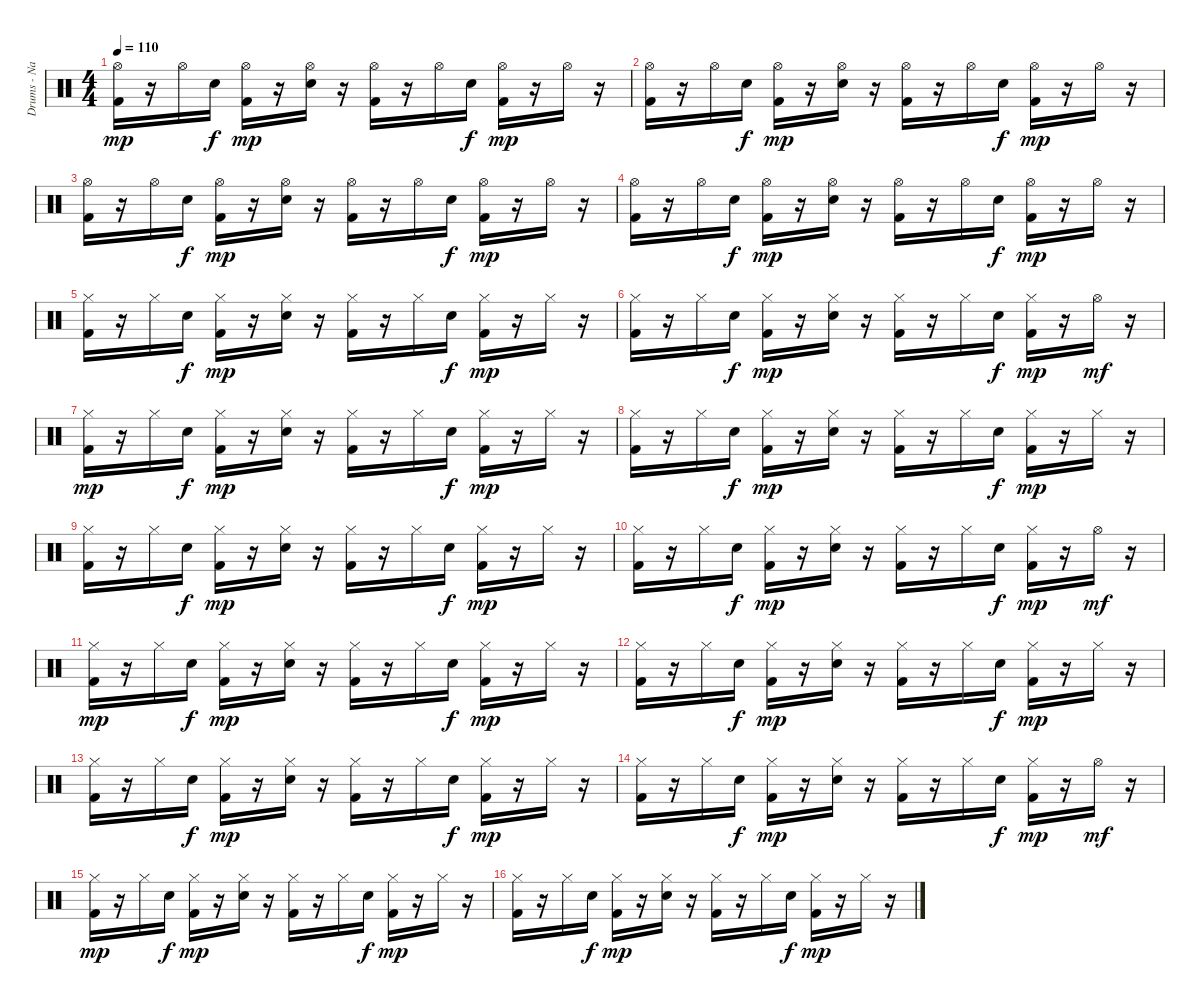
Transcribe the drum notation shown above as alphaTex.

\track ("Drums - Nathan" "Drums - Na") {instrument percussion}
\staff {score}
\articulation defaults
\ts (4 4)
\tempo 110
\clef neutral
\ks c
("Hi-Hat (open)" "Kick (hit) 2").16{dy mp} r.16 "Hi-Hat (open)".16 "Electric Snare (hit)".16{dy f} ("Hi-Hat (open)" "Kick (hit) 2").16{dy mp} r.16 ("Hi-Hat (open)" "Electric Snare (hit)").16 r.16 ("Hi-Hat (open)" "Kick (hit) 2").16 r.16 "Hi-Hat (open)".16 "Electric Snare (hit)".16{dy f} ("Hi-Hat (open)" "Kick (hit) 2").16{dy mp} r.16 "Hi-Hat (open)".16 r.16 |
("Hi-Hat (open)" "Kick (hit) 2").16 r.16 "Hi-Hat (open)".16 "Electric Snare (hit)".16{dy f} ("Hi-Hat (open)" "Kick (hit) 2").16{dy mp} r.16 ("Hi-Hat (open)" "Electric Snare (hit)").16 r.16 ("Hi-Hat (open)" "Kick (hit) 2").16 r.16 "Hi-Hat (open)".16 "Electric Snare (hit)".16{dy f} ("Hi-Hat (open)" "Kick (hit) 2").16{dy mp} r.16 "Hi-Hat (open)".16 r.16 |
("Hi-Hat (open)" "Kick (hit) 2").16 r.16 "Hi-Hat (open)".16 "Electric Snare (hit)".16{dy f} ("Hi-Hat (open)" "Kick (hit) 2").16{dy mp} r.16 ("Hi-Hat (open)" "Electric Snare (hit)").16 r.16 ("Hi-Hat (open)" "Kick (hit) 2").16 r.16 "Hi-Hat (open)".16 "Electric Snare (hit)".16{dy f} ("Hi-Hat (open)" "Kick (hit) 2").16{dy mp} r.16 "Hi-Hat (open)".16 r.16 |
("Hi-Hat (open)" "Kick (hit) 2").16 r.16 "Hi-Hat (open)".16 "Electric Snare (hit)".16{dy f} ("Hi-Hat (open)" "Kick (hit) 2").16{dy mp} r.16 ("Hi-Hat (open)" "Electric Snare (hit)").16 r.16 ("Hi-Hat (open)" "Kick (hit) 2").16 r.16 "Hi-Hat (open)".16 "Electric Snare (hit)".16{dy f} ("Hi-Hat (open)" "Kick (hit) 2").16{dy mp} r.16 "Hi-Hat (open)".16 r.16 |
("Hi-Hat (closed)" "Kick (hit) 2").16 r.16 "Hi-Hat (closed)".16 "Electric Snare (hit)".16{dy f} ("Hi-Hat (closed)" "Kick (hit) 2").16{dy mp} r.16 ("Hi-Hat (closed)" "Electric Snare (hit)").16 r.16 ("Hi-Hat (closed)" "Kick (hit) 2").16 r.16 "Hi-Hat (closed)".16 "Electric Snare (hit)".16{dy f} ("Hi-Hat (closed)" "Kick (hit) 2").16{dy mp} r.16 "Hi-Hat (closed)".16 r.16 |
("Hi-Hat (closed)" "Kick (hit) 2").16 r.16 "Hi-Hat (closed)".16 "Electric Snare (hit)".16{dy f} ("Hi-Hat (closed)" "Kick (hit) 2").16{dy mp} r.16 ("Hi-Hat (closed)" "Electric Snare (hit)").16 r.16 ("Hi-Hat (closed)" "Kick (hit) 2").16 r.16 "Hi-Hat (closed)".16 "Electric Snare (hit)".16{dy f} ("Hi-Hat (closed)" "Kick (hit) 2").16{dy mp} r.16 "Hi-Hat (open)".16{dy mf} r.16 |
("Hi-Hat (closed)" "Kick (hit) 2").16{dy mp} r.16 "Hi-Hat (closed)".16 "Electric Snare (hit)".16{dy f} ("Hi-Hat (closed)" "Kick (hit) 2").16{dy mp} r.16 ("Hi-Hat (closed)" "Electric Snare (hit)").16 r.16 ("Hi-Hat (closed)" "Kick (hit) 2").16 r.16 "Hi-Hat (closed)".16 "Electric Snare (hit)".16{dy f} ("Hi-Hat (closed)" "Kick (hit) 2").16{dy mp} r.16 "Hi-Hat (closed)".16 r.16 |
("Hi-Hat (closed)" "Kick (hit) 2").16 r.16 "Hi-Hat (closed)".16 "Electric Snare (hit)".16{dy f} ("Hi-Hat (closed)" "Kick (hit) 2").16{dy mp} r.16 ("Hi-Hat (closed)" "Electric Snare (hit)").16 r.16 ("Hi-Hat (closed)" "Kick (hit) 2").16 r.16 "Hi-Hat (closed)".16 "Electric Snare (hit)".16{dy f} ("Hi-Hat (closed)" "Kick (hit) 2").16{dy mp} r.16 "Hi-Hat (closed)".16 r.16 |
("Hi-Hat (closed)" "Kick (hit) 2").16 r.16 "Hi-Hat (closed)".16 "Electric Snare (hit)".16{dy f} ("Hi-Hat (closed)" "Kick (hit) 2").16{dy mp} r.16 ("Hi-Hat (closed)" "Electric Snare (hit)").16 r.16 ("Hi-Hat (closed)" "Kick (hit) 2").16 r.16 "Hi-Hat (closed)".16 "Electric Snare (hit)".16{dy f} ("Hi-Hat (closed)" "Kick (hit) 2").16{dy mp} r.16 "Hi-Hat (closed)".16 r.16 |
("Hi-Hat (closed)" "Kick (hit) 2").16 r.16 "Hi-Hat (closed)".16 "Electric Snare (hit)".16{dy f} ("Hi-Hat (closed)" "Kick (hit) 2").16{dy mp} r.16 ("Hi-Hat (closed)" "Electric Snare (hit)").16 r.16 ("Hi-Hat (closed)" "Kick (hit) 2").16 r.16 "Hi-Hat (closed)".16 "Electric Snare (hit)".16{dy f} ("Hi-Hat (closed)" "Kick (hit) 2").16{dy mp} r.16 "Hi-Hat (open)".16{dy mf} r.16 |
("Hi-Hat (closed)" "Kick (hit) 2").16{dy mp} r.16 "Hi-Hat (closed)".16 "Electric Snare (hit)".16{dy f} ("Hi-Hat (closed)" "Kick (hit) 2").16{dy mp} r.16 ("Hi-Hat (closed)" "Electric Snare (hit)").16 r.16 ("Hi-Hat (closed)" "Kick (hit) 2").16 r.16 "Hi-Hat (closed)".16 "Electric Snare (hit)".16{dy f} ("Hi-Hat (closed)" "Kick (hit) 2").16{dy mp} r.16 "Hi-Hat (closed)".16 r.16 |
("Hi-Hat (closed)" "Kick (hit) 2").16 r.16 "Hi-Hat (closed)".16 "Electric Snare (hit)".16{dy f} ("Hi-Hat (closed)" "Kick (hit) 2").16{dy mp} r.16 ("Hi-Hat (closed)" "Electric Snare (hit)").16 r.16 ("Hi-Hat (closed)" "Kick (hit) 2").16 r.16 "Hi-Hat (closed)".16 "Electric Snare (hit)".16{dy f} ("Hi-Hat (closed)" "Kick (hit) 2").16{dy mp} r.16 "Hi-Hat (closed)".16 r.16 |
("Hi-Hat (closed)" "Kick (hit) 2").16 r.16 "Hi-Hat (closed)".16 "Electric Snare (hit)".16{dy f} ("Hi-Hat (closed)" "Kick (hit) 2").16{dy mp} r.16 ("Hi-Hat (closed)" "Electric Snare (hit)").16 r.16 ("Hi-Hat (closed)" "Kick (hit) 2").16 r.16 "Hi-Hat (closed)".16 "Electric Snare (hit)".16{dy f} ("Hi-Hat (closed)" "Kick (hit) 2").16{dy mp} r.16 "Hi-Hat (closed)".16 r.16 |
("Hi-Hat (closed)" "Kick (hit) 2").16 r.16 "Hi-Hat (closed)".16 "Electric Snare (hit)".16{dy f} ("Hi-Hat (closed)" "Kick (hit) 2").16{dy mp} r.16 ("Hi-Hat (closed)" "Electric Snare (hit)").16 r.16 ("Hi-Hat (closed)" "Kick (hit) 2").16 r.16 "Hi-Hat (closed)".16 "Electric Snare (hit)".16{dy f} ("Hi-Hat (closed)" "Kick (hit) 2").16{dy mp} r.16 "Hi-Hat (open)".16{dy mf} r.16 |
("Hi-Hat (closed)" "Kick (hit) 2").16{dy mp} r.16 "Hi-Hat (closed)".16 "Electric Snare (hit)".16{dy f} ("Hi-Hat (closed)" "Kick (hit) 2").16{dy mp} r.16 ("Hi-Hat (closed)" "Electric Snare (hit)").16 r.16 ("Hi-Hat (closed)" "Kick (hit) 2").16 r.16 "Hi-Hat (closed)".16 "Electric Snare (hit)".16{dy f} ("Hi-Hat (closed)" "Kick (hit) 2").16{dy mp} r.16 "Hi-Hat (closed)".16 r.16 |
("Hi-Hat (closed)" "Kick (hit) 2").16 r.16 "Hi-Hat (closed)".16 "Electric Snare (hit)".16{dy f} ("Hi-Hat (closed)" "Kick (hit) 2").16{dy mp} r.16 ("Hi-Hat (closed)" "Electric Snare (hit)").16 r.16 ("Hi-Hat (closed)" "Kick (hit) 2").16 r.16 "Hi-Hat (closed)".16 "Electric Snare (hit)".16{dy f} ("Hi-Hat (closed)" "Kick (hit) 2").16{dy mp} r.16 "Hi-Hat (closed)".16 r.16
